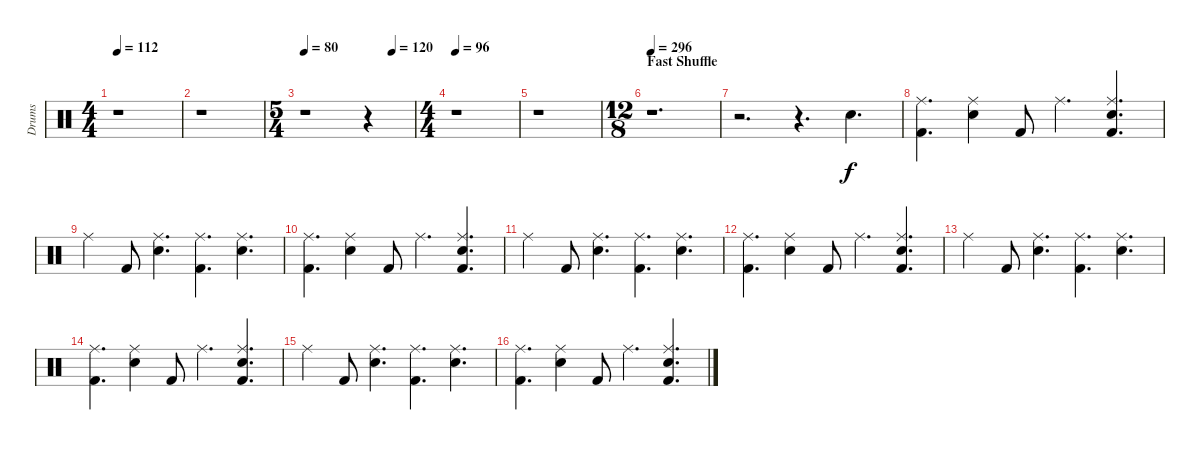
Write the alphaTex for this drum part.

\track ("Drums" "Drums") {instrument percussion}
\staff {score}
\articulation defaults
\ts (4 4)
\tempo 112
\clef neutral
\ks c
r.1{dy ff} |
r.1 |
\ts (5 4)
\tempo 80
\tempo (120 0.8)
r.1 r.4 |
\ts (4 4)
\tempo 96
r.1 |
r.1 |
\ts (12 8)
\section ("" "Fast Shuffle")
\tempo 296
r.1{d} |
r.2{d} r.4{d} "Electric Snare (hit)".4{d dy f} |
("Ride (middle)" "Kick (hit) 2").4{d} ("Ride (middle)" "Electric Snare (hit)").4 "Kick (hit) 2".8 "Ride (middle)".4{d} ("Ride (middle)" "Electric Snare (hit)" "Kick (hit) 2").4{d} |
"Ride (middle)".4 "Kick (hit) 2".8 ("Ride (middle)" "Electric Snare (hit)").4{d} ("Ride (middle)" "Kick (hit) 2").4{d} ("Ride (middle)" "Electric Snare (hit)").4{d} |
("Ride (middle)" "Kick (hit) 2").4{d} ("Ride (middle)" "Electric Snare (hit)").4 "Kick (hit) 2".8 "Ride (middle)".4{d} ("Ride (middle)" "Electric Snare (hit)" "Kick (hit) 2").4{d} |
"Ride (middle)".4 "Kick (hit) 2".8 ("Ride (middle)" "Electric Snare (hit)").4{d} ("Ride (middle)" "Kick (hit) 2").4{d} ("Ride (middle)" "Electric Snare (hit)").4{d} |
("Ride (middle)" "Kick (hit) 2").4{d} ("Ride (middle)" "Electric Snare (hit)").4 "Kick (hit) 2".8 "Ride (middle)".4{d} ("Ride (middle)" "Electric Snare (hit)" "Kick (hit) 2").4{d} |
"Ride (middle)".4 "Kick (hit) 2".8 ("Ride (middle)" "Electric Snare (hit)").4{d} ("Ride (middle)" "Kick (hit) 2").4{d} ("Ride (middle)" "Electric Snare (hit)").4{d} |
("Ride (middle)" "Kick (hit) 2").4{d} ("Ride (middle)" "Electric Snare (hit)").4 "Kick (hit) 2".8 "Ride (middle)".4{d} ("Ride (middle)" "Electric Snare (hit)" "Kick (hit) 2").4{d} |
"Ride (middle)".4 "Kick (hit) 2".8 ("Ride (middle)" "Electric Snare (hit)").4{d} ("Ride (middle)" "Kick (hit) 2").4{d} ("Ride (middle)" "Electric Snare (hit)").4{d} |
("Ride (middle)" "Kick (hit) 2").4{d} ("Ride (middle)" "Electric Snare (hit)").4 "Kick (hit) 2".8 "Ride (middle)".4{d} ("Ride (middle)" "Electric Snare (hit)" "Kick (hit) 2").4{d}
